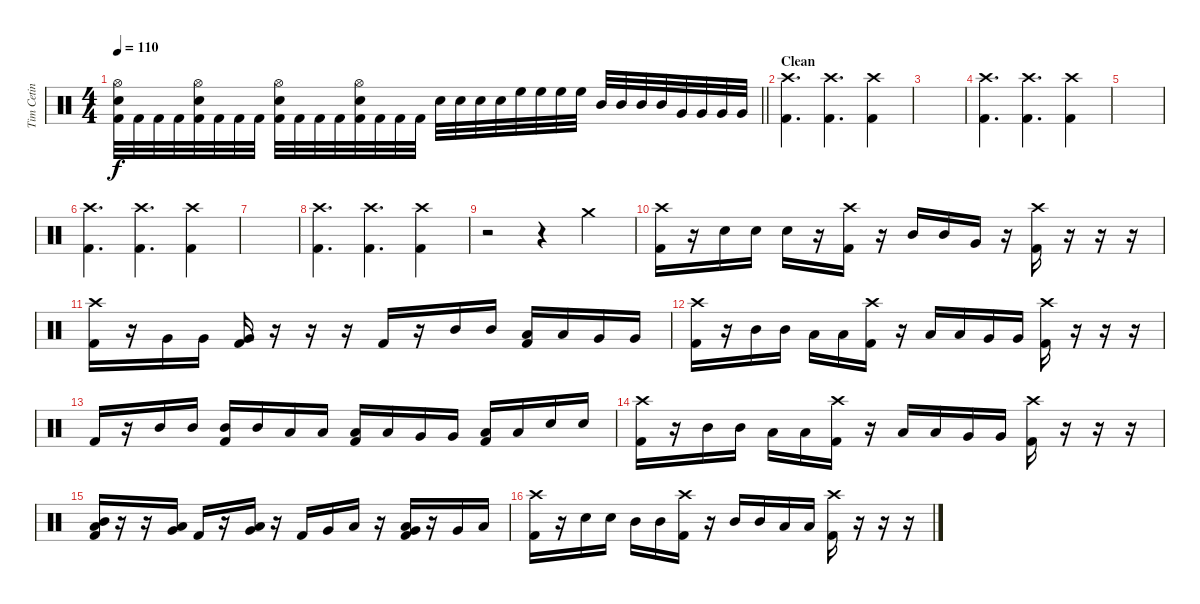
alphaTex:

\track ("Tim Cetin" "Tim Cetin") {instrument percussion}
\staff {score}
\articulation defaults
\ts (4 4)
\tempo 110
\clef neutral
\barLineRight lightlight
\ks c
("Hi-Hat (open)" "Snare (hit) 2" "Kick (hit) 2").32{dy f} "Kick (hit) 2".32 "Kick (hit) 2".32 "Kick (hit) 2".32 ("Hi-Hat (open)" "Snare (hit) 2" "Kick (hit) 2").32 "Kick (hit) 2".32 "Kick (hit) 2".32 "Kick (hit) 2".32 ("Hi-Hat (open)" "Snare (hit) 2" "Kick (hit) 2").32 "Kick (hit) 2".32 "Kick (hit) 2".32 "Kick (hit) 2".32 ("Hi-Hat (open)" "Snare (hit) 2" "Kick (hit) 2").32 "Kick (hit) 2".32 "Kick (hit) 2".32 "Kick (hit) 2".32 "Snare (hit) 2".32 "Snare (hit) 2".32 "Snare (hit) 2".32 "Snare (hit) 2".32 "High Floor Tom (hit)".32 "High Floor Tom (hit)".32 "High Floor Tom (hit)".32 "High Floor Tom (hit)".32 "Mid Tom (hit)".32 "Mid Tom (hit)".32 "Mid Tom (hit)".32 "Mid Tom (hit)".32 "Very Low Tom (hit)".32 "Very Low Tom (hit)".32 "Very Low Tom (hit)".32 "Very Low Tom (hit)".32 |
\section ("" "Clean")
("Crash high (hit)" "Kick (hit) 2").4{d} ("Crash high (hit)" "Kick (hit) 2").4{d} ("Crash high (hit)" "Kick (hit) 2").4 |
|
("Crash high (hit)" "Kick (hit) 2").4{d} ("Crash high (hit)" "Kick (hit) 2").4{d} ("Crash high (hit)" "Kick (hit) 2").4 |
|
("Crash high (hit)" "Kick (hit) 2").4{d} ("Crash high (hit)" "Kick (hit) 2").4{d} ("Crash high (hit)" "Kick (hit) 2").4 |
|
("Crash high (hit)" "Kick (hit) 2").4{d} ("Crash high (hit)" "Kick (hit) 2").4{d} ("Crash high (hit)" "Kick (hit) 2").4 |
r.2 r.4 "Crash medium (hit)".4 |
("Crash high (hit)" "Kick (hit) 2").16 r.16 "Snare (hit) 2".16 "Snare (hit) 2".16 "Snare (hit) 2".16 r.16 ("Crash high (hit)" "Kick (hit) 2").16 r.16 "Mid Tom (hit)".16 "Mid Tom (hit)".16 "Very Low Tom (hit)".16 r.16 ("Crash high (hit)" "Kick (hit) 2").16 r.16 r.16 r.16 |
("Crash high (hit)" "Kick (hit) 2").16 r.16 "Very Low Tom (hit)".16 "Very Low Tom (hit)".16 ("Very Low Tom (hit)" "Kick (hit) 2").16 r.16 r.16 r.16 "Kick (hit) 2".16 r.16 "Mid Tom (hit)".16 "Mid Tom (hit)".16 ("Low Tom (hit)" "Kick (hit) 2").16 "Low Tom (hit)".16 "Very Low Tom (hit)".16 "Very Low Tom (hit)".16 |
("Crash high (hit)" "Kick (hit) 2").16 r.16 "Mid Tom (hit)".16 "Mid Tom (hit)".16 "Low Tom (hit)".16 "Low Tom (hit)".16 ("Crash high (hit)" "Kick (hit) 2").16 r.16 "Low Tom (hit)".16 "Low Tom (hit)".16 "Very Low Tom (hit)".16 "Very Low Tom (hit)".16 ("Crash high (hit)" "Kick (hit) 2").16 r.16 r.16 r.16 |
"Kick (hit) 2".16 r.16 "Mid Tom (hit)".16 "Mid Tom (hit)".16 ("Mid Tom (hit)" "Kick (hit) 2").16 "Mid Tom (hit)".16 "Low Tom (hit)".16 "Low Tom (hit)".16 ("Low Tom (hit)" "Kick (hit) 2").16 "Low Tom (hit)".16 "Very Low Tom (hit)".16 "Very Low Tom (hit)".16 ("Low Floor Tom (hit)" "Kick (hit) 2").16 "Low Floor Tom (hit)".16 "Snare (hit) 2".16 "Snare (hit) 2".16 |
("Crash high (hit)" "Kick (hit) 2").16 r.16 "Mid Tom (hit)".16 "Mid Tom (hit)".16 "Low Tom (hit)".16 "Low Tom (hit)".16 ("Crash high (hit)" "Kick (hit) 2").16 r.16 "Low Tom (hit)".16 "Low Tom (hit)".16 "Very Low Tom (hit)".16 "Very Low Tom (hit)".16 ("Crash high (hit)" "Kick (hit) 2").16 r.16 r.16 r.16 |
("Low Tom (hit)" "Mid Tom (hit)" "Kick (hit) 2").16 r.16 r.16 ("Very Low Tom (hit)" "Low Tom (hit)").16 "Kick (hit) 2".16 r.16 ("Low Floor Tom (hit)" "Very Low Tom (hit)").16 r.16 "Kick (hit) 2".16 "Very Low Tom (hit)".16 "Low Floor Tom (hit)".16 r.16 ("Very Low Tom (hit)" "Low Floor Tom (hit)" "Kick (hit) 2").16 r.16 "Very Low Tom (hit)".16 "Low Floor Tom (hit)".16 |
("Crash high (hit)" "Kick (hit) 2").16 r.16 "Snare (hit) 2".16 "Snare (hit) 2".16 "Mid Tom (hit)".16 "Mid Tom (hit)".16 ("Crash high (hit)" "Kick (hit) 2").16 r.16 "Mid Tom (hit)".16 "Mid Tom (hit)".16 "Low Tom (hit)".16 "Low Tom (hit)".16 ("Crash high (hit)" "Kick (hit) 2").16 r.16 r.16 r.16
